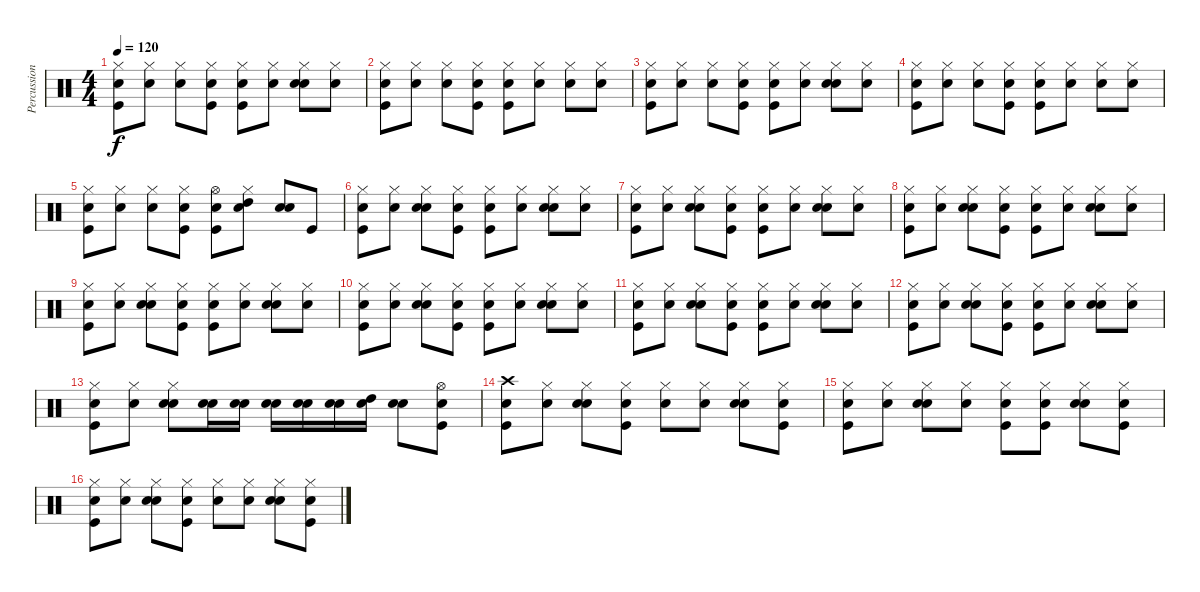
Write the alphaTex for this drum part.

\track ("Percussion" "Percussion") {instrument percussion}
\staff {score}
\articulation defaults
\ts (4 4)
\tempo 120
\clef neutral
\ks c
("Snare (hit)" "Kick (hit)" "Hi-Hat (closed)").8{dy f} ("Snare (hit)" "Hi-Hat (closed)").8 ("Snare (hit)" "Hi-Hat (closed)").8 ("Snare (hit)" "Kick (hit)" "Hi-Hat (closed)").8 ("Snare (hit)" "Kick (hit)" "Hi-Hat (closed)").8 ("Snare (hit)" "Hi-Hat (closed)").8 ("Snare (hit)" "Electric Snare (hit)" "Hi-Hat (closed)").8 ("Snare (hit)" "Hi-Hat (closed)").8 |
("Snare (hit)" "Kick (hit)" "Hi-Hat (closed)").8 ("Snare (hit)" "Hi-Hat (closed)").8 ("Snare (hit)" "Hi-Hat (closed)").8 ("Snare (hit)" "Kick (hit)" "Hi-Hat (closed)").8 ("Snare (hit)" "Kick (hit)" "Hi-Hat (closed)").8 ("Snare (hit)" "Hi-Hat (closed)").8 ("Snare (hit)" "Hi-Hat (closed)").8 ("Snare (hit)" "Hi-Hat (closed)").8 |
("Snare (hit)" "Kick (hit)" "Hi-Hat (closed)").8 ("Snare (hit)" "Hi-Hat (closed)").8 ("Snare (hit)" "Hi-Hat (closed)").8 ("Snare (hit)" "Kick (hit)" "Hi-Hat (closed)").8 ("Snare (hit)" "Kick (hit)" "Hi-Hat (closed)").8 ("Snare (hit)" "Hi-Hat (closed)").8 ("Snare (hit)" "Electric Snare (hit)" "Hi-Hat (closed)").8 ("Snare (hit)" "Hi-Hat (closed)").8 |
("Snare (hit)" "Kick (hit)" "Hi-Hat (closed)").8 ("Snare (hit)" "Hi-Hat (closed)").8 ("Snare (hit)" "Hi-Hat (closed)").8 ("Snare (hit)" "Kick (hit)" "Hi-Hat (closed)").8 ("Snare (hit)" "Kick (hit)" "Hi-Hat (closed)").8 ("Snare (hit)" "Hi-Hat (closed)").8 ("Snare (hit)" "Hi-Hat (closed)").8 ("Snare (hit)" "Hi-Hat (closed)").8 |
("Snare (hit)" "Kick (hit)" "Hi-Hat (closed)").8 ("Snare (hit)" "Hi-Hat (closed)").8 ("Snare (hit)" "Hi-Hat (closed)").8 ("Snare (hit)" "Kick (hit)" "Hi-Hat (closed)").8 ("Snare (hit)" "Kick (hit)" "Hi-Hat (open)").8 ("Snare (hit)" "Hi-Hat (closed)" "High Tom (hit)").8 ("Snare (hit)" "Electric Snare (hit)").8 "Kick (hit)".8 |
("Snare (hit)" "Kick (hit)" "Hi-Hat (closed)").8 ("Snare (hit)" "Hi-Hat (closed)").8 ("Snare (hit)" "Electric Snare (hit)" "Hi-Hat (closed)").8 ("Snare (hit)" "Kick (hit)" "Hi-Hat (closed)").8 ("Snare (hit)" "Kick (hit)" "Hi-Hat (closed)").8 ("Snare (hit)" "Hi-Hat (closed)").8 ("Snare (hit)" "Electric Snare (hit)" "Hi-Hat (closed)").8 ("Snare (hit)" "Hi-Hat (closed)").8 |
("Snare (hit)" "Kick (hit)" "Hi-Hat (closed)").8 ("Snare (hit)" "Hi-Hat (closed)").8 ("Snare (hit)" "Electric Snare (hit)" "Hi-Hat (closed)").8 ("Snare (hit)" "Kick (hit)" "Hi-Hat (closed)").8 ("Snare (hit)" "Kick (hit)" "Hi-Hat (closed)").8 ("Snare (hit)" "Hi-Hat (closed)").8 ("Snare (hit)" "Electric Snare (hit)" "Hi-Hat (closed)").8 ("Snare (hit)" "Hi-Hat (closed)").8 |
("Snare (hit)" "Kick (hit)" "Hi-Hat (closed)").8 ("Snare (hit)" "Hi-Hat (closed)").8 ("Snare (hit)" "Electric Snare (hit)" "Hi-Hat (closed)").8 ("Snare (hit)" "Kick (hit)" "Hi-Hat (closed)").8 ("Snare (hit)" "Kick (hit)" "Hi-Hat (closed)").8 ("Snare (hit)" "Hi-Hat (closed)").8 ("Snare (hit)" "Electric Snare (hit)" "Hi-Hat (closed)").8 ("Snare (hit)" "Hi-Hat (closed)").8 |
("Snare (hit)" "Kick (hit)" "Hi-Hat (closed)").8 ("Snare (hit)" "Hi-Hat (closed)").8 ("Snare (hit)" "Electric Snare (hit)" "Hi-Hat (closed)").8 ("Snare (hit)" "Kick (hit)" "Hi-Hat (closed)").8 ("Snare (hit)" "Kick (hit)" "Hi-Hat (closed)").8 ("Snare (hit)" "Hi-Hat (closed)").8 ("Snare (hit)" "Electric Snare (hit)" "Hi-Hat (closed)").8 ("Snare (hit)" "Hi-Hat (closed)").8 |
("Snare (hit)" "Kick (hit)" "Hi-Hat (closed)").8 ("Snare (hit)" "Hi-Hat (closed)").8 ("Snare (hit)" "Electric Snare (hit)" "Hi-Hat (closed)").8 ("Snare (hit)" "Kick (hit)" "Hi-Hat (closed)").8 ("Snare (hit)" "Kick (hit)" "Hi-Hat (closed)").8 ("Snare (hit)" "Hi-Hat (closed)").8 ("Snare (hit)" "Electric Snare (hit)" "Hi-Hat (closed)").8 ("Snare (hit)" "Hi-Hat (closed)").8 |
("Snare (hit)" "Kick (hit)" "Hi-Hat (closed)").8 ("Snare (hit)" "Hi-Hat (closed)").8 ("Snare (hit)" "Electric Snare (hit)" "Hi-Hat (closed)").8 ("Snare (hit)" "Kick (hit)" "Hi-Hat (closed)").8 ("Snare (hit)" "Kick (hit)" "Hi-Hat (closed)").8 ("Snare (hit)" "Hi-Hat (closed)").8 ("Snare (hit)" "Electric Snare (hit)" "Hi-Hat (closed)").8 ("Snare (hit)" "Hi-Hat (closed)").8 |
("Snare (hit)" "Kick (hit)" "Hi-Hat (closed)").8 ("Snare (hit)" "Hi-Hat (closed)").8 ("Snare (hit)" "Electric Snare (hit)" "Hi-Hat (closed)").8 ("Snare (hit)" "Kick (hit)" "Hi-Hat (closed)").8 ("Snare (hit)" "Kick (hit)" "Hi-Hat (closed)").8 ("Snare (hit)" "Hi-Hat (closed)").8 ("Snare (hit)" "Electric Snare (hit)" "Hi-Hat (closed)").8 ("Snare (hit)" "Hi-Hat (closed)").8 |
("Snare (hit)" "Kick (hit)" "Hi-Hat (closed)").8 ("Snare (hit)" "Hi-Hat (closed)").8 ("Snare (hit)" "Electric Snare (hit)" "Hi-Hat (closed)").8 ("Snare (hit)" "Electric Snare (hit)").16 ("Snare (hit)" "Electric Snare (hit)").16 ("Snare (hit)" "Electric Snare (hit)").16 ("Snare (hit)" "Electric Snare (hit)").16 ("Snare (hit)" "Electric Snare (hit)").16 ("Snare (hit)" "High Tom (hit)").16 ("Snare (hit)" "Electric Snare (hit)").8 ("Snare (hit)" "Kick (hit)" "Hi-Hat (open)").8 |
("Snare (hit)" "Kick (hit)" "Crash high (hit)").8 ("Snare (hit)" "Hi-Hat (closed)").8 ("Snare (hit)" "Electric Snare (hit)" "Hi-Hat (closed)").8 ("Snare (hit)" "Kick (hit)" "Hi-Hat (closed)").8 ("Snare (hit)" "Hi-Hat (closed)").8 ("Snare (hit)" "Hi-Hat (closed)").8 ("Snare (hit)" "Electric Snare (hit)" "Hi-Hat (closed)").8 ("Snare (hit)" "Kick (hit)" "Hi-Hat (closed)").8 |
("Snare (hit)" "Kick (hit)" "Hi-Hat (closed)").8 ("Snare (hit)" "Hi-Hat (closed)").8 ("Snare (hit)" "Electric Snare (hit)" "Hi-Hat (closed)").8 ("Snare (hit)" "Hi-Hat (closed)").8 ("Snare (hit)" "Kick (hit)" "Hi-Hat (closed)").8 ("Snare (hit)" "Kick (hit)" "Hi-Hat (closed)").8 ("Snare (hit)" "Electric Snare (hit)" "Hi-Hat (closed)").8 ("Snare (hit)" "Kick (hit)" "Hi-Hat (closed)").8 |
("Snare (hit)" "Kick (hit)" "Hi-Hat (closed)").8 ("Snare (hit)" "Hi-Hat (closed)").8 ("Snare (hit)" "Electric Snare (hit)" "Hi-Hat (closed)").8 ("Snare (hit)" "Kick (hit)" "Hi-Hat (closed)").8 ("Snare (hit)" "Hi-Hat (closed)").8 ("Snare (hit)" "Hi-Hat (closed)").8 ("Snare (hit)" "Electric Snare (hit)" "Hi-Hat (closed)").8 ("Snare (hit)" "Kick (hit)" "Hi-Hat (closed)").8
